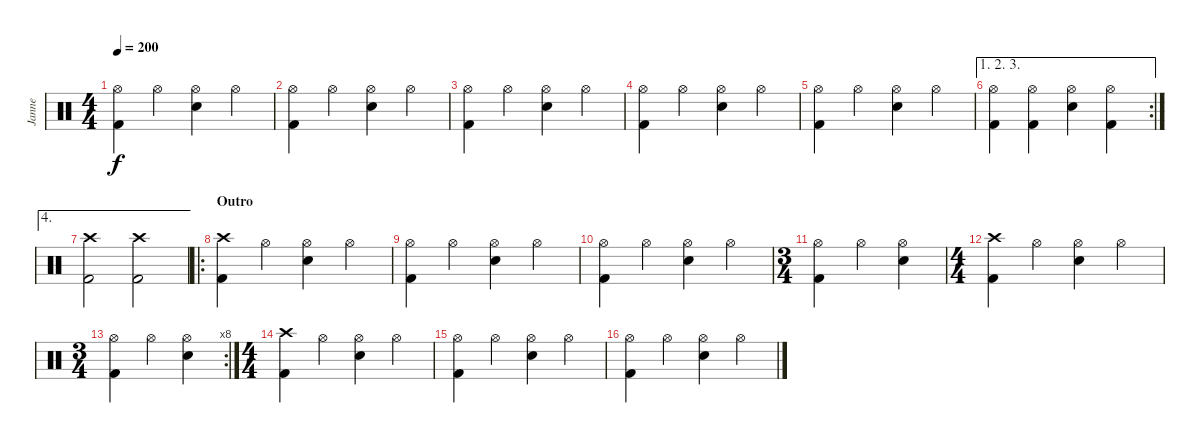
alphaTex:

\track ("Janne" "Janne") {instrument percussion}
\staff {score}
\articulation defaults
\ts (4 4)
\tempo 200
\clef neutral
\ks c
("Hi-Hat (open)" "Kick (hit) 2").4{dy f} "Hi-Hat (open)".4 ("Hi-Hat (open)" "Electric Snare (hit)").4 "Hi-Hat (open)".4 |
("Hi-Hat (open)" "Kick (hit) 2").4 "Hi-Hat (open)".4 ("Hi-Hat (open)" "Electric Snare (hit)").4 "Hi-Hat (open)".4 |
("Hi-Hat (open)" "Kick (hit) 2").4 "Hi-Hat (open)".4 ("Hi-Hat (open)" "Electric Snare (hit)").4 "Hi-Hat (open)".4 |
("Hi-Hat (open)" "Kick (hit) 2").4 "Hi-Hat (open)".4 ("Hi-Hat (open)" "Electric Snare (hit)").4 "Hi-Hat (open)".4 |
("Hi-Hat (open)" "Kick (hit) 2").4 "Hi-Hat (open)".4 ("Hi-Hat (open)" "Electric Snare (hit)").4 "Hi-Hat (open)".4 |
\ae (1 2 3)
\rc 2
("Hi-Hat (open)" "Kick (hit) 2").4 ("Hi-Hat (open)" "Kick (hit) 2").4 ("Hi-Hat (open)" "Electric Snare (hit)").4 ("Hi-Hat (open)" "Kick (hit) 2").4 |
\ae 4
("Crash high (hit)" "Kick (hit) 2").2 ("Crash high (hit)" "Kick (hit) 2").2 |
\ro
\section ("" "Outro")
("Crash high (hit)" "Kick (hit) 2").4 "Hi-Hat (open)".4 ("Hi-Hat (open)" "Electric Snare (hit)").4 "Hi-Hat (open)".4 |
("Hi-Hat (open)" "Kick (hit) 2").4 "Hi-Hat (open)".4 ("Hi-Hat (open)" "Electric Snare (hit)").4 "Hi-Hat (open)".4 |
("Hi-Hat (open)" "Kick (hit) 2").4 "Hi-Hat (open)".4 ("Hi-Hat (open)" "Electric Snare (hit)").4 "Hi-Hat (open)".4 |
\ts (3 4)
("Hi-Hat (open)" "Kick (hit) 2").4 "Hi-Hat (open)".4 ("Hi-Hat (open)" "Electric Snare (hit)").4 |
\ts (4 4)
("Crash high (hit)" "Kick (hit) 2").4 "Hi-Hat (open)".4 ("Hi-Hat (open)" "Electric Snare (hit)").4 "Hi-Hat (open)".4 |
\rc 8
\ts (3 4)
("Hi-Hat (open)" "Kick (hit) 2").4 "Hi-Hat (open)".4 ("Hi-Hat (open)" "Electric Snare (hit)").4 |
\ts (4 4)
("Crash high (hit)" "Kick (hit) 2").4 "Hi-Hat (open)".4 ("Hi-Hat (open)" "Electric Snare (hit)").4 "Hi-Hat (open)".4 |
("Hi-Hat (open)" "Kick (hit) 2").4 "Hi-Hat (open)".4 ("Hi-Hat (open)" "Electric Snare (hit)").4 "Hi-Hat (open)".4 |
("Hi-Hat (open)" "Kick (hit) 2").4 "Hi-Hat (open)".4 ("Hi-Hat (open)" "Electric Snare (hit)").4 "Hi-Hat (open)".4
